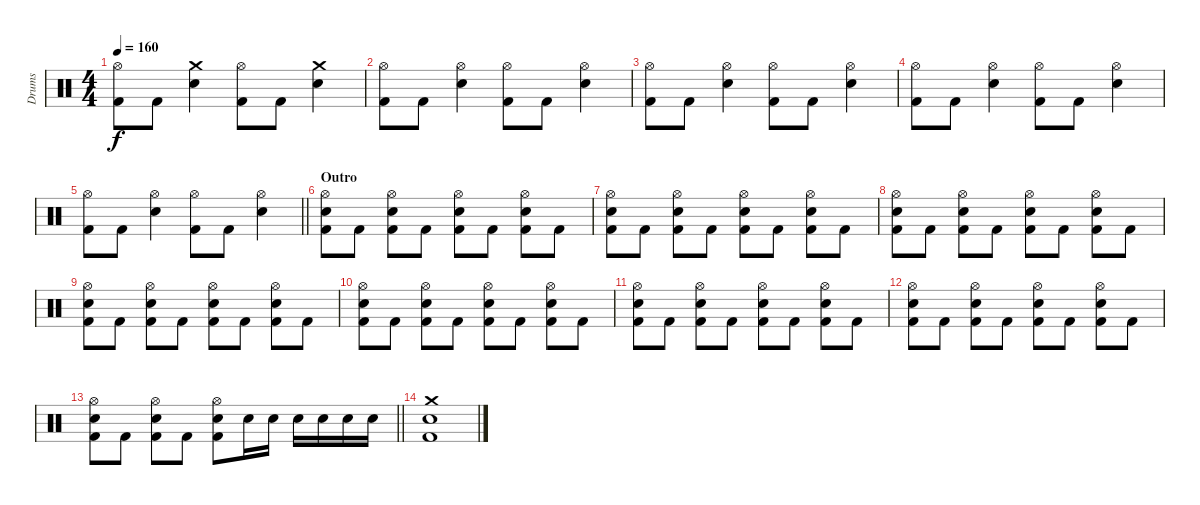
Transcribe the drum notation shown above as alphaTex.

\track ("Drums" "Drums") {instrument percussion}
\staff {score}
\articulation defaults
\ts (4 4)
\tempo 160
\clef neutral
\ks c
("Hi-Hat (open)" "Kick (hit) 2").8{dy f} "Kick (hit) 2".8 ("Crash medium (hit)" "Snare (hit) 2").4 ("Hi-Hat (open)" "Kick (hit) 2").8 "Kick (hit) 2".8 ("Crash medium (hit)" "Snare (hit) 2").4 |
("Hi-Hat (open)" "Kick (hit) 2").8 "Kick (hit) 2".8 ("Hi-Hat (open)" "Snare (hit) 2").4 ("Hi-Hat (open)" "Kick (hit) 2").8 "Kick (hit) 2".8 ("Hi-Hat (open)" "Snare (hit) 2").4 |
("Hi-Hat (open)" "Kick (hit) 2").8 "Kick (hit) 2".8 ("Hi-Hat (open)" "Snare (hit) 2").4 ("Hi-Hat (open)" "Kick (hit) 2").8 "Kick (hit) 2".8 ("Hi-Hat (open)" "Snare (hit) 2").4 |
("Hi-Hat (open)" "Kick (hit) 2").8 "Kick (hit) 2".8 ("Hi-Hat (open)" "Snare (hit) 2").4 ("Hi-Hat (open)" "Kick (hit) 2").8 "Kick (hit) 2".8 ("Hi-Hat (open)" "Snare (hit) 2").4 |
\barLineRight lightlight
("Hi-Hat (open)" "Kick (hit) 2").8 "Kick (hit) 2".8 ("Hi-Hat (open)" "Snare (hit) 2").4 ("Hi-Hat (open)" "Kick (hit) 2").8 "Kick (hit) 2".8 ("Hi-Hat (open)" "Snare (hit) 2").4 |
\section ("" "Outro")
("Hi-Hat (open)" "Snare (hit) 2" "Kick (hit) 2").8 "Kick (hit) 2".8 ("Hi-Hat (open)" "Snare (hit) 2" "Kick (hit) 2").8 "Kick (hit) 2".8 ("Hi-Hat (open)" "Snare (hit) 2" "Kick (hit) 2").8 "Kick (hit) 2".8 ("Hi-Hat (open)" "Snare (hit) 2" "Kick (hit) 2").8 "Kick (hit) 2".8 |
("Hi-Hat (open)" "Snare (hit) 2" "Kick (hit) 2").8 "Kick (hit) 2".8 ("Hi-Hat (open)" "Snare (hit) 2" "Kick (hit) 2").8 "Kick (hit) 2".8 ("Hi-Hat (open)" "Snare (hit) 2" "Kick (hit) 2").8 "Kick (hit) 2".8 ("Hi-Hat (open)" "Snare (hit) 2" "Kick (hit) 2").8 "Kick (hit) 2".8 |
("Hi-Hat (open)" "Snare (hit) 2" "Kick (hit) 2").8 "Kick (hit) 2".8 ("Hi-Hat (open)" "Snare (hit) 2" "Kick (hit) 2").8 "Kick (hit) 2".8 ("Hi-Hat (open)" "Snare (hit) 2" "Kick (hit) 2").8 "Kick (hit) 2".8 ("Hi-Hat (open)" "Snare (hit) 2" "Kick (hit) 2").8 "Kick (hit) 2".8 |
("Hi-Hat (open)" "Snare (hit) 2" "Kick (hit) 2").8 "Kick (hit) 2".8 ("Hi-Hat (open)" "Snare (hit) 2" "Kick (hit) 2").8 "Kick (hit) 2".8 ("Hi-Hat (open)" "Snare (hit) 2" "Kick (hit) 2").8 "Kick (hit) 2".8 ("Hi-Hat (open)" "Snare (hit) 2" "Kick (hit) 2").8 "Kick (hit) 2".8 |
("Hi-Hat (open)" "Snare (hit) 2" "Kick (hit) 2").8 "Kick (hit) 2".8 ("Hi-Hat (open)" "Snare (hit) 2" "Kick (hit) 2").8 "Kick (hit) 2".8 ("Hi-Hat (open)" "Snare (hit) 2" "Kick (hit) 2").8 "Kick (hit) 2".8 ("Hi-Hat (open)" "Snare (hit) 2" "Kick (hit) 2").8 "Kick (hit) 2".8 |
("Hi-Hat (open)" "Snare (hit) 2" "Kick (hit) 2").8 "Kick (hit) 2".8 ("Hi-Hat (open)" "Snare (hit) 2" "Kick (hit) 2").8 "Kick (hit) 2".8 ("Hi-Hat (open)" "Snare (hit) 2" "Kick (hit) 2").8 "Kick (hit) 2".8 ("Hi-Hat (open)" "Snare (hit) 2" "Kick (hit) 2").8 "Kick (hit) 2".8 |
("Hi-Hat (open)" "Snare (hit) 2" "Kick (hit) 2").8 "Kick (hit) 2".8 ("Hi-Hat (open)" "Snare (hit) 2" "Kick (hit) 2").8 "Kick (hit) 2".8 ("Hi-Hat (open)" "Snare (hit) 2" "Kick (hit) 2").8 "Kick (hit) 2".8 ("Hi-Hat (open)" "Snare (hit) 2" "Kick (hit) 2").8 "Kick (hit) 2".8 |
\barLineRight lightlight
("Hi-Hat (open)" "Snare (hit) 2" "Kick (hit) 2").8 "Kick (hit) 2".8 ("Hi-Hat (open)" "Snare (hit) 2" "Kick (hit) 2").8 "Kick (hit) 2".8 ("Hi-Hat (open)" "Snare (hit) 2" "Kick (hit) 2").8 "Snare (hit) 2".16 "Snare (hit) 2".16 "Snare (hit) 2".16 "Snare (hit) 2".16 "Snare (hit) 2".16 "Electric Snare (hit)".16 |
("Crash medium (hit)" "Snare (hit) 2" "Kick (hit) 2").1
